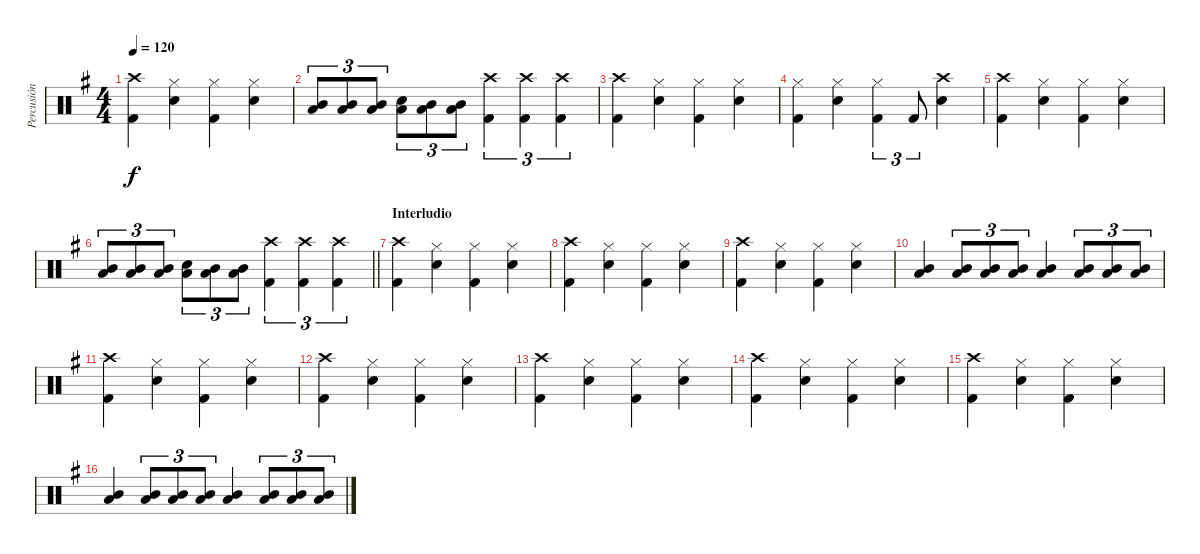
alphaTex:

\track ("Percusión" "Percusión") {instrument percussion}
\staff {score}
\articulation defaults
\ts (4 4)
\tempo 120
\clef neutral
\ks g
("Crash high (hit)" "Kick (hit) 2").4{dy f} ("Hi-Hat (closed)" "Snare (hit) 2").4 ("Hi-Hat (closed)" "Kick (hit) 2").4 ("Hi-Hat (closed)" "Snare (hit) 2").4 |
("Low Tom (hit)" "Mid Tom (hit)").8{tu (3 2)} ("Low Tom (hit)" "Mid Tom (hit)").8{tu (3 2)} ("Low Tom (hit)" "Mid Tom (hit)").8{tu (3 2)} ("Low Tom (hit)" "Snare (hit) 2").8{tu (3 2)} ("Low Tom (hit)" "Mid Tom (hit)").8{tu (3 2)} ("Low Tom (hit)" "Mid Tom (hit)").8{tu (3 2)} ("Crash high (hit)" "Kick (hit) 2").4{tu (3 2)} ("Crash high (hit)" "Kick (hit) 2").4{tu (3 2)} ("Crash high (hit)" "Kick (hit) 2").4{tu (3 2)} |
("Crash high (hit)" "Kick (hit) 2").4 ("Hi-Hat (closed)" "Snare (hit) 2").4 ("Hi-Hat (closed)" "Kick (hit) 2").4 ("Hi-Hat (closed)" "Snare (hit) 2").4 |
("Hi-Hat (closed)" "Kick (hit) 2").4 ("Hi-Hat (closed)" "Snare (hit) 2").4 ("Hi-Hat (closed)" "Kick (hit) 2").4{tu (3 2)} "Kick (hit) 2".8{tu (3 2)} ("Crash high (hit)" "Snare (hit) 2").4 |
("Crash high (hit)" "Kick (hit) 2").4 ("Hi-Hat (closed)" "Snare (hit) 2").4 ("Hi-Hat (closed)" "Kick (hit) 2").4 ("Hi-Hat (closed)" "Snare (hit) 2").4 |
\barLineRight lightlight
("Low Tom (hit)" "Mid Tom (hit)").8{tu (3 2)} ("Low Tom (hit)" "Mid Tom (hit)").8{tu (3 2)} ("Low Tom (hit)" "Mid Tom (hit)").8{tu (3 2)} ("Low Tom (hit)" "Snare (hit) 2").8{tu (3 2)} ("Low Tom (hit)" "Mid Tom (hit)").8{tu (3 2)} ("Low Tom (hit)" "Mid Tom (hit)").8{tu (3 2)} ("Crash high (hit)" "Kick (hit) 2").4{tu (3 2)} ("Crash high (hit)" "Kick (hit) 2").4{tu (3 2)} ("Crash high (hit)" "Kick (hit) 2").4{tu (3 2)} |
\section ("" "Interludio")
("Crash high (hit)" "Kick (hit) 2").4 ("Hi-Hat (closed)" "Snare (hit) 2").4 ("Hi-Hat (closed)" "Kick (hit) 2").4 ("Hi-Hat (closed)" "Snare (hit) 2").4 |
("Crash high (hit)" "Kick (hit) 2").4 ("Hi-Hat (closed)" "Snare (hit) 2").4 ("Hi-Hat (closed)" "Kick (hit) 2").4 ("Hi-Hat (closed)" "Snare (hit) 2").4 |
("Crash high (hit)" "Kick (hit) 2").4 ("Hi-Hat (closed)" "Snare (hit) 2").4 ("Hi-Hat (closed)" "Kick (hit) 2").4 ("Hi-Hat (closed)" "Snare (hit) 2").4 |
("Mid Tom (hit)" "Low Tom (hit)").4 ("Mid Tom (hit)" "Low Tom (hit)").8{tu (3 2)} ("Mid Tom (hit)" "Low Tom (hit)").8{tu (3 2)} ("Mid Tom (hit)" "Low Tom (hit)").8{tu (3 2)} ("Mid Tom (hit)" "Low Tom (hit)").4 ("Mid Tom (hit)" "Low Tom (hit)").8{tu (3 2)} ("Mid Tom (hit)" "Low Tom (hit)").8{tu (3 2)} ("Mid Tom (hit)" "Low Tom (hit)").8{tu (3 2)} |
("Crash high (hit)" "Kick (hit) 2").4 ("Hi-Hat (closed)" "Snare (hit) 2").4 ("Hi-Hat (closed)" "Kick (hit) 2").4 ("Hi-Hat (closed)" "Snare (hit) 2").4 |
("Crash high (hit)" "Kick (hit) 2").4 ("Hi-Hat (closed)" "Snare (hit) 2").4 ("Hi-Hat (closed)" "Kick (hit) 2").4 ("Hi-Hat (closed)" "Snare (hit) 2").4 |
("Crash high (hit)" "Kick (hit) 2").4 ("Hi-Hat (closed)" "Snare (hit) 2").4 ("Hi-Hat (closed)" "Kick (hit) 2").4 ("Hi-Hat (closed)" "Snare (hit) 2").4 |
("Crash high (hit)" "Kick (hit) 2").4 ("Hi-Hat (closed)" "Snare (hit) 2").4 ("Hi-Hat (closed)" "Kick (hit) 2").4 ("Hi-Hat (closed)" "Snare (hit) 2").4 |
("Crash high (hit)" "Kick (hit) 2").4 ("Hi-Hat (closed)" "Snare (hit) 2").4 ("Hi-Hat (closed)" "Kick (hit) 2").4 ("Hi-Hat (closed)" "Snare (hit) 2").4 |
("Mid Tom (hit)" "Low Tom (hit)").4 ("Mid Tom (hit)" "Low Tom (hit)").8{tu (3 2)} ("Mid Tom (hit)" "Low Tom (hit)").8{tu (3 2)} ("Mid Tom (hit)" "Low Tom (hit)").8{tu (3 2)} ("Mid Tom (hit)" "Low Tom (hit)").4 ("Mid Tom (hit)" "Low Tom (hit)").8{tu (3 2)} ("Mid Tom (hit)" "Low Tom (hit)").8{tu (3 2)} ("Mid Tom (hit)" "Low Tom (hit)").8{tu (3 2)}
